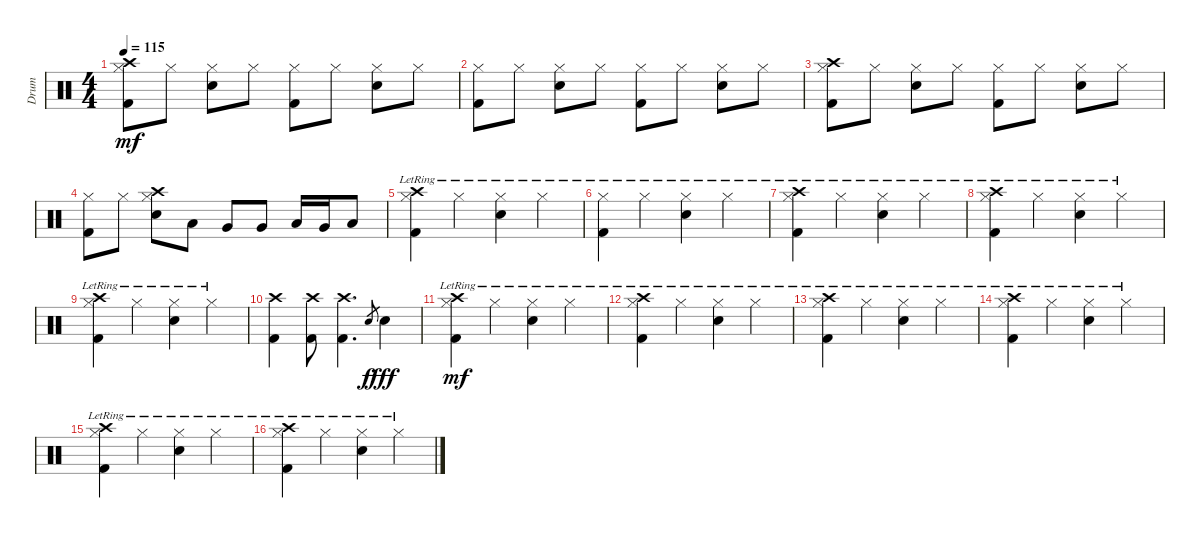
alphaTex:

\track ("Drum" "Drum") {instrument percussion}
\staff {score}
\articulation defaults
\ts (4 4)
\tempo 115
\clef neutral
\ks c
("Kick (hit) 2" "Hi-Hat (closed)" "Crash high (hit)").8{dy mf} "Hi-Hat (closed)".8 ("Snare (hit) 2" "Hi-Hat (closed)").8 "Hi-Hat (closed)".8 ("Kick (hit) 2" "Hi-Hat (closed)").8 "Hi-Hat (closed)".8 ("Snare (hit) 2" "Hi-Hat (closed)").8 "Hi-Hat (closed)".8 |
("Kick (hit) 2" "Hi-Hat (closed)").8 "Hi-Hat (closed)".8 ("Snare (hit) 2" "Hi-Hat (closed)").8 "Hi-Hat (closed)".8 ("Kick (hit) 2" "Hi-Hat (closed)").8 "Hi-Hat (closed)".8 ("Snare (hit) 2" "Hi-Hat (closed)").8 "Hi-Hat (closed)".8 |
("Kick (hit) 2" "Hi-Hat (closed)" "Crash high (hit)").8 "Hi-Hat (closed)".8 ("Snare (hit) 2" "Hi-Hat (closed)").8 "Hi-Hat (closed)".8 ("Kick (hit) 2" "Hi-Hat (closed)").8 "Hi-Hat (closed)".8 ("Snare (hit) 2" "Hi-Hat (closed)").8 "Hi-Hat (closed)".8 |
("Kick (hit) 2" "Hi-Hat (closed)").8 "Hi-Hat (closed)".8 ("Snare (hit) 2" "Hi-Hat (closed)" "Crash high (hit)").8 "Low Tom (hit)".8 "Very Low Tom (hit)".8 "Very Low Tom (hit)".8 "Low Tom (hit)".16 "Very Low Tom (hit)".16 "Low Floor Tom (hit)".8 |
("Kick (hit) 2"{lr} "Hi-Hat (closed)"{lr} "Crash high (hit)"{lr}).4 "Hi-Hat (closed)"{lr}.4 ("Snare (hit) 2"{lr} "Hi-Hat (closed)"{lr}).4 "Hi-Hat (closed)"{lr}.4 |
("Kick (hit) 2"{lr} "Hi-Hat (closed)"{lr}).4 "Hi-Hat (closed)"{lr}.4 ("Snare (hit) 2"{lr} "Hi-Hat (closed)"{lr}).4 "Hi-Hat (closed)"{lr}.4 |
("Kick (hit) 2"{lr} "Hi-Hat (closed)"{lr} "Crash high (hit)"{lr}).4 "Hi-Hat (closed)"{lr}.4 ("Snare (hit) 2"{lr} "Hi-Hat (closed)"{lr}).4 "Hi-Hat (closed)"{lr}.4 |
("Kick (hit) 2"{lr} "Hi-Hat (closed)"{lr} "Crash high (hit)").4 "Hi-Hat (closed)"{lr}.4 ("Snare (hit) 2"{lr} "Hi-Hat (closed)"{lr}).4 "Hi-Hat (closed)"{lr}.4 |
("Kick (hit) 2"{lr} "Hi-Hat (closed)"{lr} "Crash high (hit)").4 "Hi-Hat (closed)"{lr}.4 ("Snare (hit) 2"{lr} "Hi-Hat (closed)"{lr}).4 "Hi-Hat (closed)"{lr}.4 |
("Crash high (hit)" "Kick (hit) 2").4 ("Crash high (hit)" "Kick (hit) 2").8 ("Crash high (hit)" "Kick (hit) 2").4{d} "Snare (hit) 2".8{gr dy f} "Snare (hit) 2".4{dy fff} |
("Kick (hit) 2"{lr} "Hi-Hat (closed)"{lr} "Crash high (hit)"{lr}).4{dy mf} "Hi-Hat (closed)"{lr}.4 ("Snare (hit) 2"{lr} "Hi-Hat (closed)"{lr}).4 "Hi-Hat (closed)"{lr}.4 |
("Kick (hit) 2"{lr} "Hi-Hat (closed)"{lr} "Crash high (hit)").4 "Hi-Hat (closed)"{lr}.4 ("Snare (hit) 2"{lr} "Hi-Hat (closed)"{lr}).4 "Hi-Hat (closed)"{lr}.4 |
("Kick (hit) 2"{lr} "Hi-Hat (closed)"{lr} "Crash high (hit)"{lr}).4 "Hi-Hat (closed)"{lr}.4 ("Snare (hit) 2"{lr} "Hi-Hat (closed)"{lr}).4 "Hi-Hat (closed)"{lr}.4 |
("Kick (hit) 2"{lr} "Hi-Hat (closed)"{lr} "Crash high (hit)").4 "Hi-Hat (closed)"{lr}.4 ("Snare (hit) 2"{lr} "Hi-Hat (closed)"{lr}).4 "Hi-Hat (closed)"{lr}.4 |
("Kick (hit) 2"{lr} "Hi-Hat (closed)"{lr} "Crash high (hit)"{lr}).4 "Hi-Hat (closed)"{lr}.4 ("Snare (hit) 2"{lr} "Hi-Hat (closed)"{lr}).4 "Hi-Hat (closed)"{lr}.4 |
("Kick (hit) 2"{lr} "Hi-Hat (closed)"{lr} "Crash high (hit)").4 "Hi-Hat (closed)"{lr}.4 ("Snare (hit) 2"{lr} "Hi-Hat (closed)"{lr}).4 "Hi-Hat (closed)"{lr}.4
